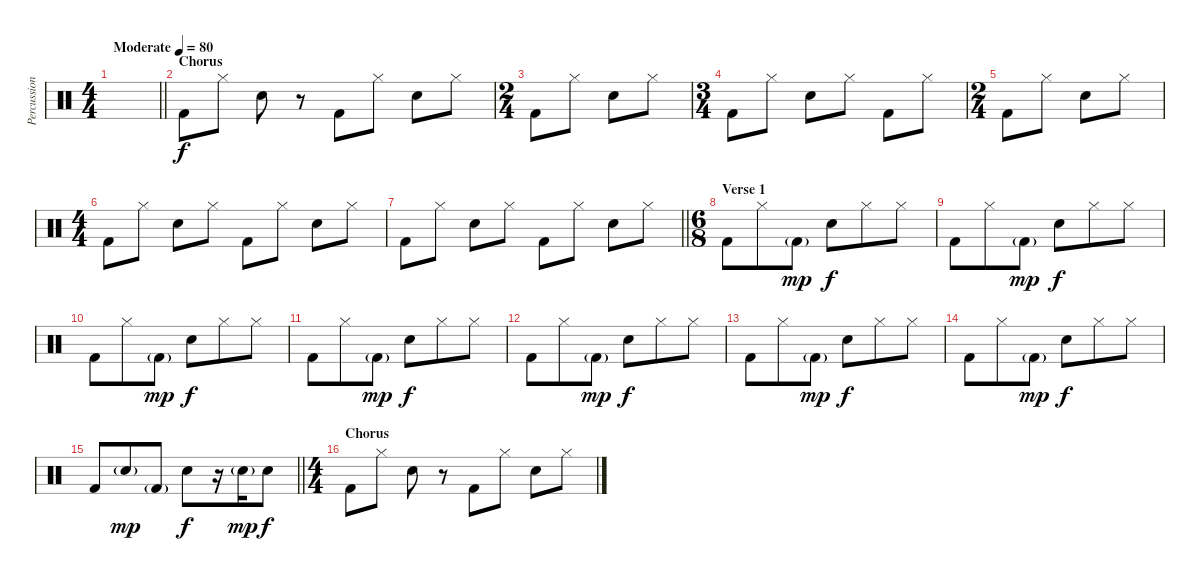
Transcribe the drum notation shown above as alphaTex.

\track ("Percussion" "Percussion") {instrument percussion}
\staff {score}
\articulation defaults
\ts (4 4)
\tempo (80 "Moderate")
\clef neutral
\barLineRight lightlight
\ks c
|
\section ("" "Chorus")
"Kick (hit) 2".8 "Hi-Hat (closed)".8 "Snare (hit) 2".8 r.8 "Kick (hit) 2".8 "Hi-Hat (closed)".8 "Snare (hit) 2".8 "Hi-Hat (closed)".8 |
\ts (2 4)
"Kick (hit) 2".8 "Hi-Hat (closed)".8 "Snare (hit) 2".8 "Hi-Hat (closed)".8 |
\ts (3 4)
"Kick (hit) 2".8 "Hi-Hat (closed)".8 "Snare (hit) 2".8 "Hi-Hat (closed)".8 "Kick (hit) 2".8 "Hi-Hat (closed)".8 |
\ts (2 4)
"Kick (hit) 2".8 "Hi-Hat (closed)".8 "Snare (hit) 2".8 "Hi-Hat (closed)".8 |
\ts (4 4)
"Kick (hit) 2".8 "Hi-Hat (closed)".8 "Snare (hit) 2".8 "Hi-Hat (closed)".8 "Kick (hit) 2".8 "Hi-Hat (closed)".8 "Snare (hit) 2".8 "Hi-Hat (closed)".8 |
\barLineRight lightlight "Kick (hit) 2".8 "Hi-Hat (closed)".8 "Snare (hit) 2".8 "Hi-Hat (closed)".8 "Kick (hit) 2".8 "Hi-Hat (closed)".8 "Snare (hit) 2".8 "Hi-Hat (closed)".8
|
\ts (6 8)
\section ("" "Verse 1")
"Kick (hit) 2".8 "Hi-Hat (closed)".8 "Kick (hit) 2"{g}.8{dy mp} "Snare (hit) 2".8{dy f} "Hi-Hat (closed)".8 "Hi-Hat (closed)".8 |
"Kick (hit) 2".8 "Hi-Hat (closed)".8 "Kick (hit) 2"{g}.8{dy mp} "Snare (hit) 2".8{dy f} "Hi-Hat (closed)".8 "Hi-Hat (closed)".8 |
"Kick (hit) 2".8 "Hi-Hat (closed)".8 "Kick (hit) 2"{g}.8{dy mp} "Snare (hit) 2".8{dy f} "Hi-Hat (closed)".8 "Hi-Hat (closed)".8 |
"Kick (hit) 2".8 "Hi-Hat (closed)".8 "Kick (hit) 2"{g}.8{dy mp} "Snare (hit) 2".8{dy f} "Hi-Hat (closed)".8 "Hi-Hat (closed)".8 |
"Kick (hit) 2".8 "Hi-Hat (closed)".8 "Kick (hit) 2"{g}.8{dy mp} "Snare (hit) 2".8{dy f} "Hi-Hat (closed)".8 "Hi-Hat (closed)".8 |
"Kick (hit) 2".8 "Hi-Hat (closed)".8 "Kick (hit) 2"{g}.8{dy mp} "Snare (hit) 2".8{dy f} "Hi-Hat (closed)".8 "Hi-Hat (closed)".8 |
"Kick (hit) 2".8 "Hi-Hat (closed)".8 "Kick (hit) 2"{g}.8{dy mp} "Snare (hit) 2".8{dy f} "Hi-Hat (closed)".8 "Hi-Hat (closed)".8 |
\barLineRight lightlight "Kick (hit) 2".8 "Snare (hit) 2"{g}.8{dy mp} "Kick (hit) 2"{g}.8 "Snare (hit) 2".8{dy f}
r.16 "Snare (hit) 2"{g}.16{dy mp} "Snare (hit) 2".8{dy f} |
\ts (4 4)
\section ("" "Chorus")
"Kick (hit) 2".8 "Hi-Hat (closed)".8 "Snare (hit) 2".8 r.8 "Kick (hit) 2".8 "Hi-Hat (closed)".8 "Snare (hit) 2".8 "Hi-Hat (closed)".8
